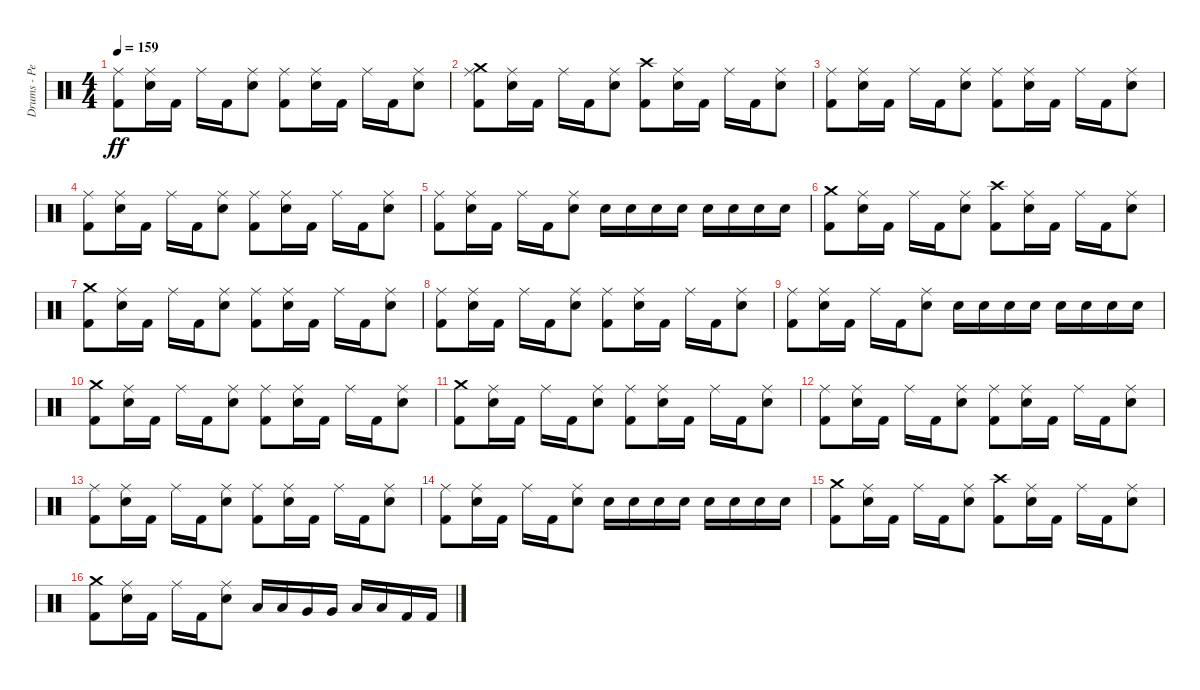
\track ("Drums - Pete Finestone" "Drums - Pe") {instrument percussion}
\staff {score}
\articulation defaults
\ts (4 4)
\tempo 159
\clef neutral
\ks c
("Kick (hit) 2" "Ride (middle)").8{dy ff} ("Electric Snare (hit)" "Ride (middle)").16 "Kick (hit) 2".16 "Ride (middle)".16 "Kick (hit) 2".16 ("Electric Snare (hit)" "Ride (middle)").8 ("Kick (hit) 2" "Ride (middle)").8 ("Electric Snare (hit)" "Ride (middle)").16 "Kick (hit) 2".16 "Ride (middle)".16 "Kick (hit) 2".16 ("Electric Snare (hit)" "Ride (middle)").8 |
("Ride (middle)" "Kick (hit) 2" "Crash medium (hit)").8 ("Electric Snare (hit)" "Ride (middle)").16 "Kick (hit) 2".16 "Ride (middle)".16 "Kick (hit) 2".16 ("Electric Snare (hit)" "Ride (middle)").8 ("Kick (hit) 2" "Crash high (hit)").8 ("Electric Snare (hit)" "Ride (middle)").16 "Kick (hit) 2".16 "Ride (middle)".16 "Kick (hit) 2".16 ("Electric Snare (hit)" "Ride (middle)").8 |
("Kick (hit) 2" "Ride (middle)").8 ("Electric Snare (hit)" "Ride (middle)").16 "Kick (hit) 2".16 "Ride (middle)".16 "Kick (hit) 2".16 ("Electric Snare (hit)" "Ride (middle)").8 ("Kick (hit) 2" "Ride (middle)").8 ("Electric Snare (hit)" "Ride (middle)").16 "Kick (hit) 2".16 "Ride (middle)".16 "Kick (hit) 2".16 ("Electric Snare (hit)" "Ride (middle)").8 |
("Kick (hit) 2" "Ride (middle)").8 ("Electric Snare (hit)" "Ride (middle)").16 "Kick (hit) 2".16 "Ride (middle)".16 "Kick (hit) 2".16 ("Electric Snare (hit)" "Ride (middle)").8 ("Kick (hit) 2" "Ride (middle)").8 ("Electric Snare (hit)" "Ride (middle)").16 "Kick (hit) 2".16 "Ride (middle)".16 "Kick (hit) 2".16 ("Electric Snare (hit)" "Ride (middle)").8 |
("Kick (hit) 2" "Ride (middle)").8 ("Electric Snare (hit)" "Ride (middle)").16 "Kick (hit) 2".16 "Ride (middle)".16 "Kick (hit) 2".16 ("Electric Snare (hit)" "Ride (middle)").8 "Electric Snare (hit)".16 "Electric Snare (hit)".16 "Electric Snare (hit)".16 "Electric Snare (hit)".16 "Electric Snare (hit)".16 "Electric Snare (hit)".16 "Electric Snare (hit)".16 "Electric Snare (hit)".16 |
("Crash medium (hit)" "Kick (hit) 2").8 ("Electric Snare (hit)" "Ride (middle)").16 "Kick (hit) 2".16 "Ride (middle)".16 "Kick (hit) 2".16 ("Electric Snare (hit)" "Ride (middle)").8 ("Kick (hit) 2" "Crash high (hit)").8 ("Electric Snare (hit)" "Ride (middle)").16 "Kick (hit) 2".16 "Ride (middle)".16 "Kick (hit) 2".16 ("Electric Snare (hit)" "Ride (middle)").8 |
("Kick (hit) 2" "Crash medium (hit)").8 ("Electric Snare (hit)" "Ride (middle)").16 "Kick (hit) 2".16 "Ride (middle)".16 "Kick (hit) 2".16 ("Electric Snare (hit)" "Ride (middle)").8 ("Kick (hit) 2" "Ride (middle)").8 ("Electric Snare (hit)" "Ride (middle)").16 "Kick (hit) 2".16 "Ride (middle)".16 "Kick (hit) 2".16 ("Electric Snare (hit)" "Ride (middle)").8 |
("Kick (hit) 2" "Ride (middle)").8 ("Electric Snare (hit)" "Ride (middle)").16 "Kick (hit) 2".16 "Ride (middle)".16 "Kick (hit) 2".16 ("Electric Snare (hit)" "Ride (middle)").8 ("Kick (hit) 2" "Ride (middle)").8 ("Electric Snare (hit)" "Ride (middle)").16 "Kick (hit) 2".16 "Ride (middle)".16 "Kick (hit) 2".16 ("Electric Snare (hit)" "Ride (middle)").8 |
("Kick (hit) 2" "Ride (middle)").8 ("Electric Snare (hit)" "Ride (middle)").16 "Kick (hit) 2".16 "Ride (middle)".16 "Kick (hit) 2".16 ("Electric Snare (hit)" "Ride (middle)").8 "Electric Snare (hit)".16 "Electric Snare (hit)".16 "Electric Snare (hit)".16 "Electric Snare (hit)".16 "Electric Snare (hit)".16 "Electric Snare (hit)".16 "Electric Snare (hit)".16 "Electric Snare (hit)".16 |
("Kick (hit) 2" "Crash medium (hit)").8 ("Electric Snare (hit)" "Ride (middle)").16 "Kick (hit) 2".16 "Ride (middle)".16 "Kick (hit) 2".16 ("Electric Snare (hit)" "Ride (middle)").8 ("Kick (hit) 2" "Ride (middle)").8 ("Electric Snare (hit)" "Ride (middle)").16 "Kick (hit) 2".16 "Ride (middle)".16 "Kick (hit) 2".16 ("Electric Snare (hit)" "Ride (middle)").8 |
("Kick (hit) 2" "Crash medium (hit)").8 ("Electric Snare (hit)" "Ride (middle)").16 "Kick (hit) 2".16 "Ride (middle)".16 "Kick (hit) 2".16 ("Electric Snare (hit)" "Ride (middle)").8 ("Kick (hit) 2" "Ride (middle)").8 ("Electric Snare (hit)" "Ride (middle)").16 "Kick (hit) 2".16 "Ride (middle)".16 "Kick (hit) 2".16 ("Electric Snare (hit)" "Ride (middle)").8 |
("Kick (hit) 2" "Ride (middle)").8 ("Electric Snare (hit)" "Ride (middle)").16 "Kick (hit) 2".16 "Ride (middle)".16 "Kick (hit) 2".16 ("Electric Snare (hit)" "Ride (middle)").8 ("Kick (hit) 2" "Ride (middle)").8 ("Electric Snare (hit)" "Ride (middle)").16 "Kick (hit) 2".16 "Ride (middle)".16 "Kick (hit) 2".16 ("Electric Snare (hit)" "Ride (middle)").8 |
("Kick (hit) 2" "Ride (middle)").8 ("Electric Snare (hit)" "Ride (middle)").16 "Kick (hit) 2".16 "Ride (middle)".16 "Kick (hit) 2".16 ("Electric Snare (hit)" "Ride (middle)").8 ("Kick (hit) 2" "Ride (middle)").8 ("Electric Snare (hit)" "Ride (middle)").16 "Kick (hit) 2".16 "Ride (middle)".16 "Kick (hit) 2".16 ("Electric Snare (hit)" "Ride (middle)").8 |
("Kick (hit) 2" "Ride (middle)").8 ("Electric Snare (hit)" "Ride (middle)").16 "Kick (hit) 2".16 "Ride (middle)".16 "Kick (hit) 2".16 ("Electric Snare (hit)" "Ride (middle)").8 "Electric Snare (hit)".16 "Electric Snare (hit)".16 "Electric Snare (hit)".16 "Electric Snare (hit)".16 "Electric Snare (hit)".16 "Electric Snare (hit)".16 "Electric Snare (hit)".16 "Electric Snare (hit)".16 |
("Crash medium (hit)" "Kick (hit) 2").8 ("Electric Snare (hit)" "Ride (middle)").16 "Kick (hit) 2".16 "Ride (middle)".16 "Kick (hit) 2".16 ("Electric Snare (hit)" "Ride (middle)").8 ("Crash high (hit)" "Kick (hit) 2").8 ("Electric Snare (hit)" "Ride (middle)").16 "Kick (hit) 2".16 "Ride (middle)".16 "Kick (hit) 2".16 ("Electric Snare (hit)" "Ride (middle)").8 |
("Crash medium (hit)" "Kick (hit) 2").8 ("Electric Snare (hit)" "Ride (middle)").16 "Kick (hit) 2".16 "Ride (middle)".16 "Kick (hit) 2".16 ("Electric Snare (hit)" "Ride (middle)").8 "Low Tom (hit)".16 "Low Tom (hit)".16 "Very Low Tom (hit)".16 "Very Low Tom (hit)".16 "Low Floor Tom (hit)".16 "Low Floor Tom (hit)".16 "Kick (hit) 2".16 "Kick (hit) 2".16
